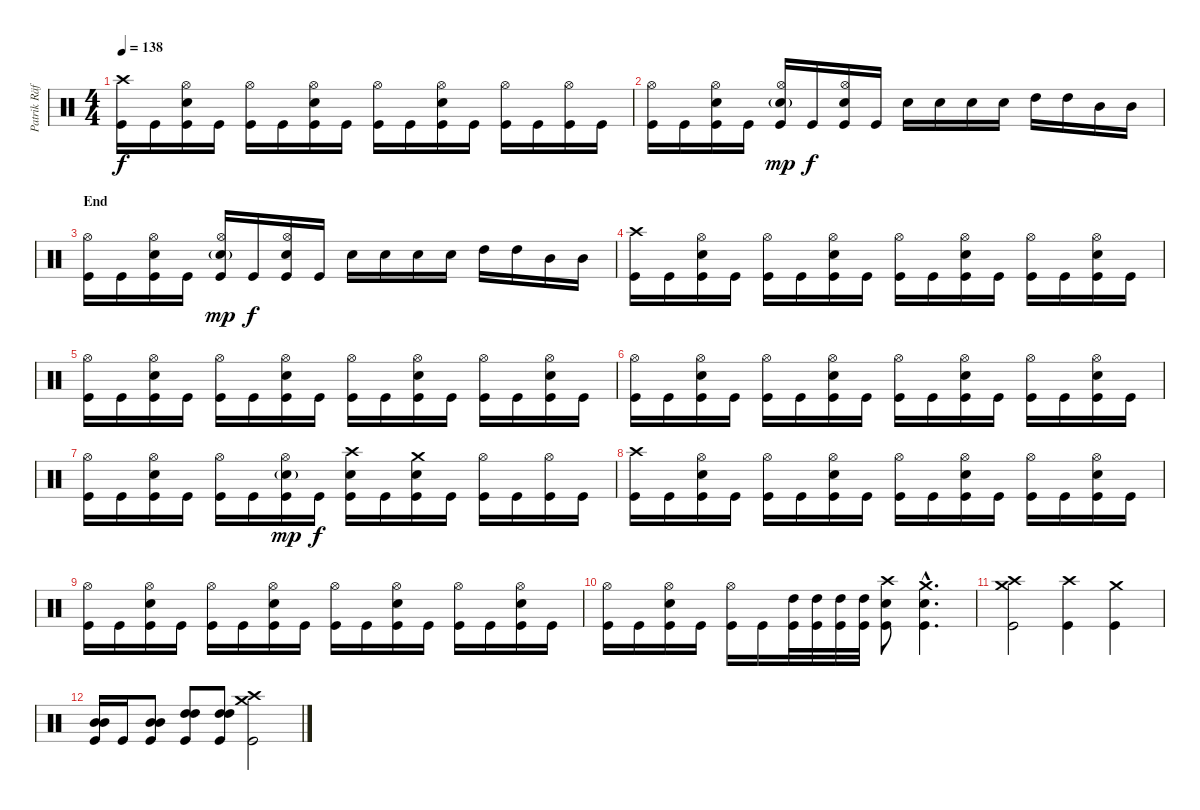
\track ("Patrik Räfling" "Patrik Räf") {instrument percussion}
\staff {score}
\articulation defaults
\ts (4 4)
\tempo 138
\clef neutral
\ks c
("Crash high (hit)" "Kick (hit)").16{dy f} "Kick (hit)".16 ("Hi-Hat (open)" "Snare (hit) 2" "Kick (hit)").16 "Kick (hit)".16 ("Hi-Hat (open)" "Kick (hit)").16 "Kick (hit)".16 ("Hi-Hat (open)" "Snare (hit) 2" "Kick (hit)").16 "Kick (hit)".16 ("Hi-Hat (open)" "Kick (hit)").16 "Kick (hit)".16 ("Hi-Hat (open)" "Snare (hit) 2" "Kick (hit)").16 "Kick (hit)".16 ("Hi-Hat (open)" "Kick (hit)").16 "Kick (hit)".16 ("Hi-Hat (open)" "Kick (hit)").16 "Kick (hit)".16 |
("Hi-Hat (open)" "Kick (hit)").16 "Kick (hit)".16 ("Hi-Hat (open)" "Snare (hit) 2" "Kick (hit)").16 "Kick (hit)".16 ("Hi-Hat (open)" "Snare (hit) 2"{g} "Kick (hit)").16{dy mp} "Kick (hit)".16{dy f} ("Hi-Hat (open)" "Snare (hit) 2" "Kick (hit)").16 "Kick (hit)".16 "Snare (hit) 2".16 "Snare (hit) 2".16 "Snare (hit) 2".16 "Snare (hit) 2".16 "High Tom (hit)".16 "High Tom (hit)".16 "Mid Tom (hit)".16 "Mid Tom (hit)".16 |
\section ("" "End")
("Hi-Hat (open)" "Kick (hit)").16 "Kick (hit)".16 ("Hi-Hat (open)" "Snare (hit) 2" "Kick (hit)").16 "Kick (hit)".16 ("Hi-Hat (open)" "Snare (hit) 2"{g} "Kick (hit)").16{dy mp} "Kick (hit)".16{dy f} ("Hi-Hat (open)" "Snare (hit) 2" "Kick (hit)").16 "Kick (hit)".16 "Snare (hit) 2".16 "Snare (hit) 2".16 "Snare (hit) 2".16 "Snare (hit) 2".16 "High Tom (hit)".16 "High Tom (hit)".16 "Mid Tom (hit)".16 "Mid Tom (hit)".16 |
("Crash high (hit)" "Kick (hit)").16 "Kick (hit)".16 ("Hi-Hat (open)" "Snare (hit) 2" "Kick (hit)").16 "Kick (hit)".16 ("Hi-Hat (open)" "Kick (hit)").16 "Kick (hit)".16 ("Hi-Hat (open)" "Snare (hit) 2" "Kick (hit)").16 "Kick (hit)".16 ("Hi-Hat (open)" "Kick (hit)").16 "Kick (hit)".16 ("Hi-Hat (open)" "Snare (hit) 2" "Kick (hit)").16 "Kick (hit)".16 ("Hi-Hat (open)" "Kick (hit)").16 "Kick (hit)".16 ("Hi-Hat (open)" "Snare (hit) 2" "Kick (hit)").16 "Kick (hit)".16 |
("Hi-Hat (open)" "Kick (hit)").16 "Kick (hit)".16 ("Hi-Hat (open)" "Snare (hit) 2" "Kick (hit)").16 "Kick (hit)".16 ("Hi-Hat (open)" "Kick (hit)").16 "Kick (hit)".16 ("Hi-Hat (open)" "Snare (hit) 2" "Kick (hit)").16 "Kick (hit)".16 ("Hi-Hat (open)" "Kick (hit)").16 "Kick (hit)".16 ("Hi-Hat (open)" "Snare (hit) 2" "Kick (hit)").16 "Kick (hit)".16 ("Hi-Hat (open)" "Kick (hit)").16 "Kick (hit)".16 ("Hi-Hat (open)" "Snare (hit) 2" "Kick (hit)").16 "Kick (hit)".16 |
("Hi-Hat (open)" "Kick (hit)").16 "Kick (hit)".16 ("Hi-Hat (open)" "Snare (hit) 2" "Kick (hit)").16 "Kick (hit)".16 ("Hi-Hat (open)" "Kick (hit)").16 "Kick (hit)".16 ("Hi-Hat (open)" "Snare (hit) 2" "Kick (hit)").16 "Kick (hit)".16 ("Hi-Hat (open)" "Kick (hit)").16 "Kick (hit)".16 ("Hi-Hat (open)" "Snare (hit) 2" "Kick (hit)").16 "Kick (hit)".16 ("Hi-Hat (open)" "Kick (hit)").16 "Kick (hit)".16 ("Hi-Hat (open)" "Snare (hit) 2" "Kick (hit)").16 "Kick (hit)".16 |
("Hi-Hat (open)" "Kick (hit)").16 "Kick (hit)".16 ("Hi-Hat (open)" "Snare (hit) 2" "Kick (hit)").16 "Kick (hit)".16 ("Hi-Hat (open)" "Kick (hit)").16 "Kick (hit)".16 ("Hi-Hat (open)" "Snare (hit) 2"{g} "Kick (hit)").16{dy mp} "Kick (hit)".16{dy f} ("Crash high (hit)" "Snare (hit) 2" "Kick (hit)").16 "Kick (hit)".16 ("Crash medium (hit)" "Snare (hit) 2" "Kick (hit)").16 "Kick (hit)".16 ("Hi-Hat (open)" "Kick (hit)").16 "Kick (hit)".16 ("Hi-Hat (open)" "Kick (hit)").16 "Kick (hit)".16 |
("Crash high (hit)" "Kick (hit)").16 "Kick (hit)".16 ("Hi-Hat (open)" "Snare (hit) 2" "Kick (hit)").16 "Kick (hit)".16 ("Hi-Hat (open)" "Kick (hit)").16 "Kick (hit)".16 ("Hi-Hat (open)" "Snare (hit) 2" "Kick (hit)").16 "Kick (hit)".16 ("Hi-Hat (open)" "Kick (hit)").16 "Kick (hit)".16 ("Hi-Hat (open)" "Snare (hit) 2" "Kick (hit)").16 "Kick (hit)".16 ("Hi-Hat (open)" "Kick (hit)").16 "Kick (hit)".16 ("Hi-Hat (open)" "Snare (hit) 2" "Kick (hit)").16 "Kick (hit)".16 |
("Hi-Hat (open)" "Kick (hit)").16 "Kick (hit)".16 ("Hi-Hat (open)" "Snare (hit) 2" "Kick (hit)").16 "Kick (hit)".16 ("Hi-Hat (open)" "Kick (hit)").16 "Kick (hit)".16 ("Hi-Hat (open)" "Snare (hit) 2" "Kick (hit)").16 "Kick (hit)".16 ("Hi-Hat (open)" "Kick (hit)").16 "Kick (hit)".16 ("Hi-Hat (open)" "Snare (hit) 2" "Kick (hit)").16 "Kick (hit)".16 ("Hi-Hat (open)" "Kick (hit)").16 "Kick (hit)".16 ("Hi-Hat (open)" "Snare (hit) 2" "Kick (hit)").16 "Kick (hit)".16 |
("Hi-Hat (open)" "Kick (hit)").16 "Kick (hit)".16 ("Hi-Hat (open)" "Snare (hit) 2" "Kick (hit)").16 "Kick (hit)".16 ("Hi-Hat (open)" "Kick (hit)").16 "Kick (hit)".16 ("High Tom (hit)" "Kick (hit)").32 ("High Tom (hit)" "Kick (hit)").32 ("High Tom (hit)" "Kick (hit)").32 ("High Tom (hit)" "Kick (hit)").32 ("Crash high (hit)" "Snare (hit) 2" "Kick (hit)").8 ("Crash medium (hit)"{hac} "Snare (hit) 2"{hac} "Kick (hit)"{hac}).4{d} |
("Crash high (hit)" "Crash medium (hit)" "Kick (hit)").2 ("Crash high (hit)" "Kick (hit)").4 ("Crash medium (hit)" "Kick (hit)").4 |
("Mid Tom (hit)" "Mid Tom (hit)" "Kick (hit)").16 "Kick (hit)".16 ("Mid Tom (hit)" "Mid Tom (hit)" "Kick (hit)").8 ("High Tom (hit)" "High Tom (hit)" "Kick (hit)").8 ("High Tom (hit)" "High Tom (hit)" "Kick (hit)").8 ("Crash high (hit)" "Crash medium (hit)" "Kick (hit)").2
